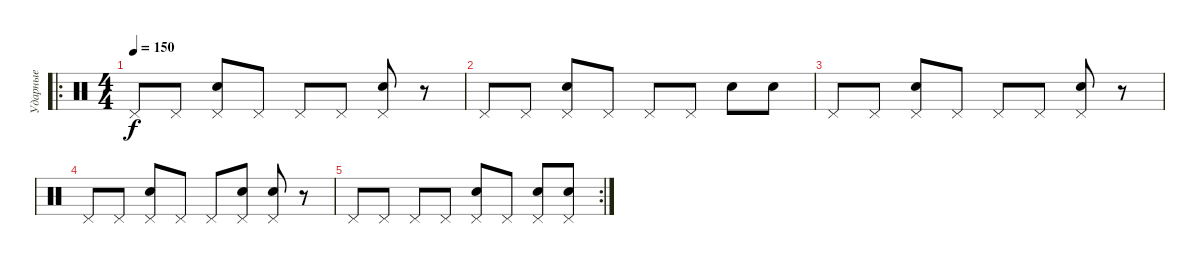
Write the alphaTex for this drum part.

\track ("Ударные" "Ударные") {instrument percussion}
\staff {score}
\articulation defaults
\ro
\ts (4 4)
\tempo 150
\clef neutral
\ks c "Pedal Hi-Hat (hit)".8{dy f} "Pedal Hi-Hat (hit)".8
("Pedal Hi-Hat (hit)" "Snare (hit) 2").8 "Pedal Hi-Hat (hit)".8 "Pedal Hi-Hat (hit)".8 "Pedal Hi-Hat (hit)".8 ("Pedal Hi-Hat (hit)" "Snare (hit) 2").8 r.8 |
"Pedal Hi-Hat (hit)".8 "Pedal Hi-Hat (hit)".8 ("Pedal Hi-Hat (hit)" "Snare (hit) 2").8 "Pedal Hi-Hat (hit)".8 "Pedal Hi-Hat (hit)".8 "Pedal Hi-Hat (hit)".8 "Snare (hit) 2".8 "Snare (hit) 2".8 |
"Pedal Hi-Hat (hit)".8 "Pedal Hi-Hat (hit)".8 ("Pedal Hi-Hat (hit)" "Snare (hit) 2").8 "Pedal Hi-Hat (hit)".8 "Pedal Hi-Hat (hit)".8 "Pedal Hi-Hat (hit)".8 ("Pedal Hi-Hat (hit)" "Snare (hit) 2").8 r.8 |
"Pedal Hi-Hat (hit)".8 "Pedal Hi-Hat (hit)".8 ("Pedal Hi-Hat (hit)" "Snare (hit) 2").8 "Pedal Hi-Hat (hit)".8 "Pedal Hi-Hat (hit)".8 ("Pedal Hi-Hat (hit)" "Snare (hit) 2").8 ("Pedal Hi-Hat (hit)" "Snare (hit) 2").8 r.8 |
\rc 2 "Pedal Hi-Hat (hit)".8 "Pedal Hi-Hat (hit)".8 "Pedal Hi-Hat (hit)".8 "Pedal Hi-Hat (hit)".8
("Pedal Hi-Hat (hit)" "Snare (hit) 2").8 "Pedal Hi-Hat (hit)".8 ("Pedal Hi-Hat (hit)" "Snare (hit) 2").8 ("Pedal Hi-Hat (hit)" "Snare (hit) 2").8
